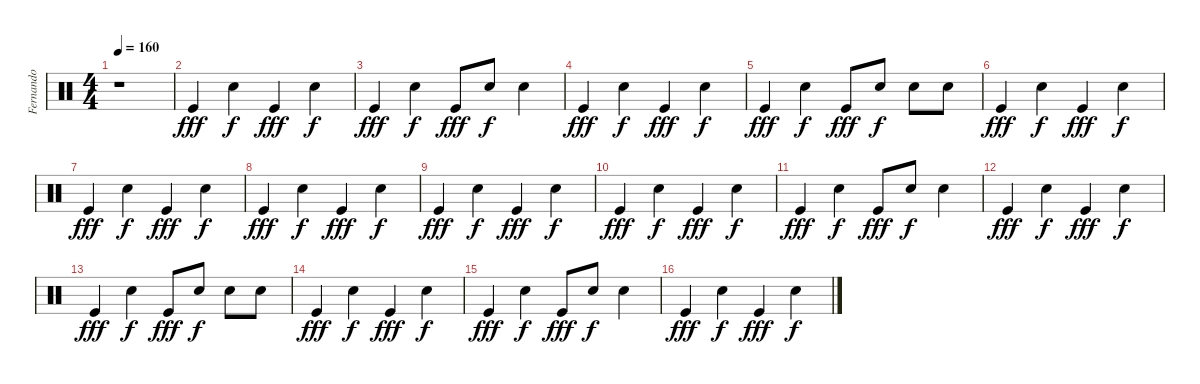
\track ("Fernando" "Fernando") {instrument percussion}
\staff {score}
\articulation defaults
\ts (4 4)
\tempo 160
\clef neutral
\ks c
r.1{dy fff} |
"Kick (hit)".4 "Snare (hit) 2".4{dy f} "Kick (hit)".4{dy fff} "Snare (hit) 2".4{dy f} |
"Kick (hit)".4{dy fff} "Snare (hit) 2".4{dy f} "Kick (hit)".8{dy fff} "Snare (hit) 2".8{dy f} "Snare (hit) 2".4 |
"Kick (hit)".4{dy fff} "Snare (hit) 2".4{dy f} "Kick (hit)".4{dy fff} "Snare (hit) 2".4{dy f} |
"Kick (hit)".4{dy fff} "Snare (hit) 2".4{dy f} "Kick (hit)".8{dy fff} "Snare (hit) 2".8{dy f} "Snare (hit) 2".8 "Snare (hit) 2".8 |
"Kick (hit)".4{dy fff} "Snare (hit) 2".4{dy f} "Kick (hit)".4{dy fff} "Snare (hit) 2".4{dy f} |
"Kick (hit)".4{dy fff} "Snare (hit) 2".4{dy f} "Kick (hit)".4{dy fff} "Snare (hit) 2".4{dy f} |
"Kick (hit)".4{dy fff} "Snare (hit) 2".4{dy f} "Kick (hit)".4{dy fff} "Snare (hit) 2".4{dy f} |
"Kick (hit)".4{dy fff} "Snare (hit) 2".4{dy f} "Kick (hit)".4{dy fff} "Snare (hit) 2".4{dy f} |
"Kick (hit)".4{dy fff} "Snare (hit) 2".4{dy f} "Kick (hit)".4{dy fff} "Snare (hit) 2".4{dy f} |
"Kick (hit)".4{dy fff} "Snare (hit) 2".4{dy f} "Kick (hit)".8{dy fff} "Snare (hit) 2".8{dy f} "Snare (hit) 2".4 |
"Kick (hit)".4{dy fff} "Snare (hit) 2".4{dy f} "Kick (hit)".4{dy fff} "Snare (hit) 2".4{dy f} |
"Kick (hit)".4{dy fff} "Snare (hit) 2".4{dy f} "Kick (hit)".8{dy fff} "Snare (hit) 2".8{dy f} "Snare (hit) 2".8 "Snare (hit) 2".8 |
"Kick (hit)".4{dy fff} "Snare (hit) 2".4{dy f} "Kick (hit)".4{dy fff} "Snare (hit) 2".4{dy f} |
"Kick (hit)".4{dy fff} "Snare (hit) 2".4{dy f} "Kick (hit)".8{dy fff} "Snare (hit) 2".8{dy f} "Snare (hit) 2".4 |
"Kick (hit)".4{dy fff} "Snare (hit) 2".4{dy f} "Kick (hit)".4{dy fff} "Snare (hit) 2".4{dy f}
